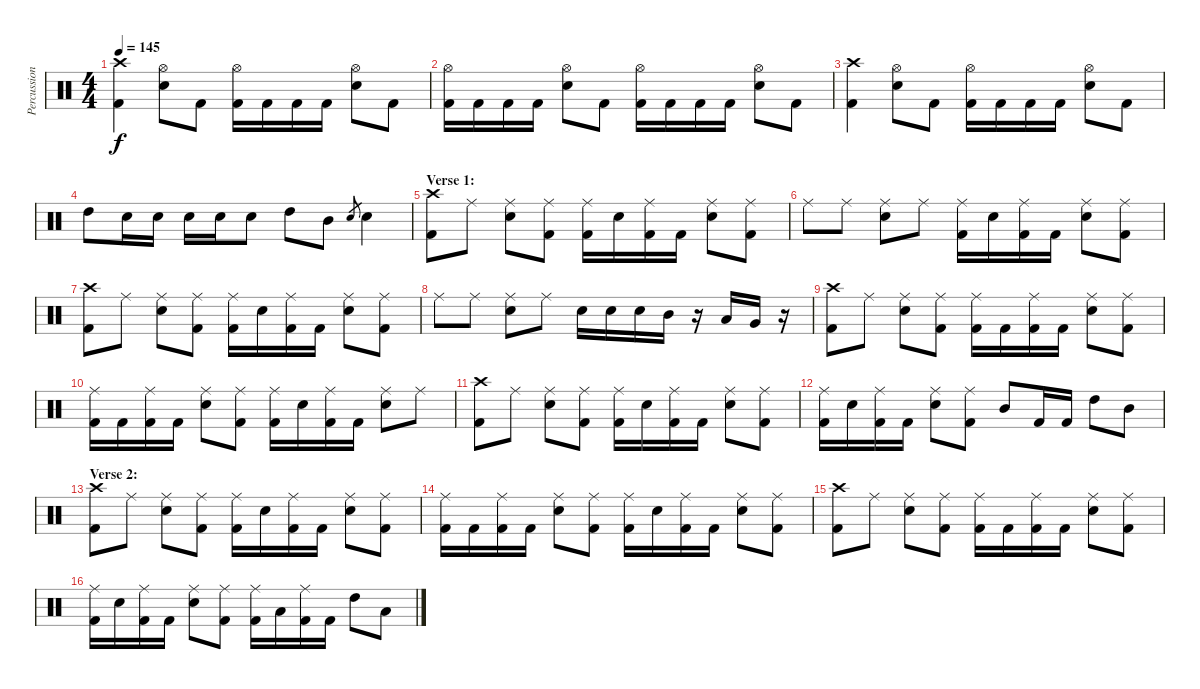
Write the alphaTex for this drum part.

\track ("Percussion" "Percussion") {instrument percussion}
\staff {score}
\articulation defaults
\ts (4 4)
\tempo 145
\clef neutral
\ks c
("Crash high (hit)" "Kick (hit) 2").4{dy f} ("Hi-Hat (open)" "Electric Snare (hit)").8 "Kick (hit) 2".8 ("Hi-Hat (open)" "Kick (hit) 2").16 "Kick (hit) 2".16 "Kick (hit) 2".16 "Kick (hit) 2".16 ("Hi-Hat (open)" "Electric Snare (hit)").8 "Kick (hit) 2".8 |
("Hi-Hat (open)" "Kick (hit) 2").16 "Kick (hit) 2".16 "Kick (hit) 2".16 "Kick (hit) 2".16 ("Hi-Hat (open)" "Electric Snare (hit)").8 "Kick (hit) 2".8 ("Hi-Hat (open)" "Kick (hit) 2").16 "Kick (hit) 2".16 "Kick (hit) 2".16 "Kick (hit) 2".16 ("Hi-Hat (open)" "Electric Snare (hit)").8 "Kick (hit) 2".8 |
("Crash high (hit)" "Kick (hit) 2").4 ("Hi-Hat (open)" "Electric Snare (hit)").8 "Kick (hit) 2".8 ("Hi-Hat (open)" "Kick (hit) 2").16 "Kick (hit) 2".16 "Kick (hit) 2".16 "Kick (hit) 2".16 ("Hi-Hat (open)" "Electric Snare (hit)").8 "Kick (hit) 2".8 |
"High Tom (hit)".8 "Electric Snare (hit)".16 "Electric Snare (hit)".16 "Electric Snare (hit)".16 "Electric Snare (hit)".16 "Electric Snare (hit)".8 "High Tom (hit)".8 "Mid Tom (hit)".8 "Electric Snare (hit)".8{gr} "Electric Snare (hit)".4 |
\section ("" "Verse 1:")
("Crash high (hit)" "Kick (hit) 2").8 "Ride (middle)".8 ("Ride (middle)" "Electric Snare (hit)").8 ("Ride (middle)" "Kick (hit) 2").8 ("Ride (middle)" "Kick (hit) 2").16 "Electric Snare (hit)".16 ("Ride (middle)" "Kick (hit) 2").16 "Kick (hit) 2".16 ("Ride (middle)" "Electric Snare (hit)").8 ("Ride (middle)" "Kick (hit) 2").8 |
"Ride (middle)".8 "Ride (middle)".8 ("Ride (middle)" "Electric Snare (hit)").8 "Ride (middle)".8 ("Ride (middle)" "Kick (hit) 2").16 "Electric Snare (hit)".16 ("Ride (middle)" "Kick (hit) 2").16 "Kick (hit) 2".16 ("Ride (middle)" "Electric Snare (hit)").8 ("Ride (middle)" "Kick (hit) 2").8 |
("Crash high (hit)" "Kick (hit) 2").8 "Ride (middle)".8 ("Ride (middle)" "Electric Snare (hit)").8 ("Ride (middle)" "Kick (hit) 2").8 ("Ride (middle)" "Kick (hit) 2").16 "Electric Snare (hit)".16 ("Ride (middle)" "Kick (hit) 2").16 "Kick (hit) 2".16 ("Ride (middle)" "Electric Snare (hit)").8 ("Ride (middle)" "Kick (hit) 2").8 |
"Ride (middle)".8 "Ride (middle)".8 ("Ride (middle)" "Electric Snare (hit)").8 "Ride (middle)".8 "Electric Snare (hit)".16 "Electric Snare (hit)".16 "Electric Snare (hit)".16 "Mid Tom (hit)".16 r.16 "Low Tom (hit)".16 "Very Low Tom (hit)".16 r.16 |
("Crash high (hit)" "Kick (hit) 2").8 "Ride (middle)".8 ("Ride (middle)" "Electric Snare (hit)").8 ("Ride (middle)" "Kick (hit) 2").8 ("Ride (middle)" "Kick (hit) 2").16 "Kick (hit) 2".16 ("Ride (middle)" "Kick (hit) 2").16 "Kick (hit) 2".16 ("Ride (middle)" "Electric Snare (hit)").8 ("Ride (middle)" "Kick (hit) 2").8 |
("Ride (middle)" "Kick (hit) 2").16 "Kick (hit) 2".16 ("Ride (middle)" "Kick (hit) 2").16 "Kick (hit) 2".16 ("Ride (middle)" "Electric Snare (hit)").8 ("Ride (middle)" "Kick (hit) 2").8 ("Ride (middle)" "Kick (hit) 2").16 "Electric Snare (hit)".16 ("Ride (middle)" "Kick (hit) 2").16 "Kick (hit) 2".16 ("Ride (middle)" "Electric Snare (hit)").8 "Ride (middle)".8 |
("Crash high (hit)" "Kick (hit) 2").8 "Ride (middle)".8 ("Ride (middle)" "Electric Snare (hit)").8 ("Ride (middle)" "Kick (hit) 2").8 ("Ride (middle)" "Kick (hit) 2").16 "Electric Snare (hit)".16 ("Ride (middle)" "Kick (hit) 2").16 "Kick (hit) 2".16 ("Ride (middle)" "Electric Snare (hit)").8 ("Ride (middle)" "Kick (hit) 2").8 |
("Ride (middle)" "Kick (hit) 2").16 "Electric Snare (hit)".16 ("Ride (middle)" "Kick (hit) 2").16 "Kick (hit) 2".16 ("Ride (middle)" "Electric Snare (hit)").8 ("Ride (middle)" "Kick (hit) 2").8 "Mid Tom (hit)".8 "Kick (hit) 2".16 "Kick (hit) 2".16 "High Tom (hit)".8 "Mid Tom (hit)".8 |
\section ("" "Verse 2:")
("Crash high (hit)" "Kick (hit) 2").8 "Ride (middle)".8 ("Ride (middle)" "Electric Snare (hit)").8 ("Ride (middle)" "Kick (hit) 2").8 ("Ride (middle)" "Kick (hit) 2").16 "Electric Snare (hit)".16 ("Ride (middle)" "Kick (hit) 2").16 "Kick (hit) 2".16 ("Ride (middle)" "Electric Snare (hit)").8 ("Ride (middle)" "Kick (hit) 2").8 |
("Ride (middle)" "Kick (hit) 2").16 "Kick (hit) 2".16 ("Ride (middle)" "Kick (hit) 2").16 "Kick (hit) 2".16 ("Ride (middle)" "Electric Snare (hit)").8 ("Ride (middle)" "Kick (hit) 2").8 ("Ride (middle)" "Kick (hit) 2").16 "Electric Snare (hit)".16 ("Ride (middle)" "Kick (hit) 2").16 "Kick (hit) 2".16 ("Ride (middle)" "Electric Snare (hit)").8 ("Ride (middle)" "Kick (hit) 2").8 |
("Crash high (hit)" "Kick (hit) 2").8 "Ride (middle)".8 ("Ride (middle)" "Electric Snare (hit)").8 ("Ride (middle)" "Kick (hit) 2").8 ("Ride (middle)" "Kick (hit) 2").16 "Kick (hit) 2".16 ("Ride (middle)" "Kick (hit) 2").16 "Kick (hit) 2".16 ("Ride (middle)" "Electric Snare (hit)").8 ("Ride (middle)" "Kick (hit) 2").8 |
("Ride (middle)" "Kick (hit) 2").16 "Electric Snare (hit)".16 ("Ride (middle)" "Kick (hit) 2").16 "Kick (hit) 2".16 ("Ride (middle)" "Electric Snare (hit)").8 ("Ride (middle)" "Kick (hit) 2").8 ("Ride (middle)" "Kick (hit) 2").16 "Low Tom (hit)".16 ("Ride (middle)" "Kick (hit) 2").16 "Kick (hit) 2".16 "High Tom (hit)".8 "Low Tom (hit)".8
